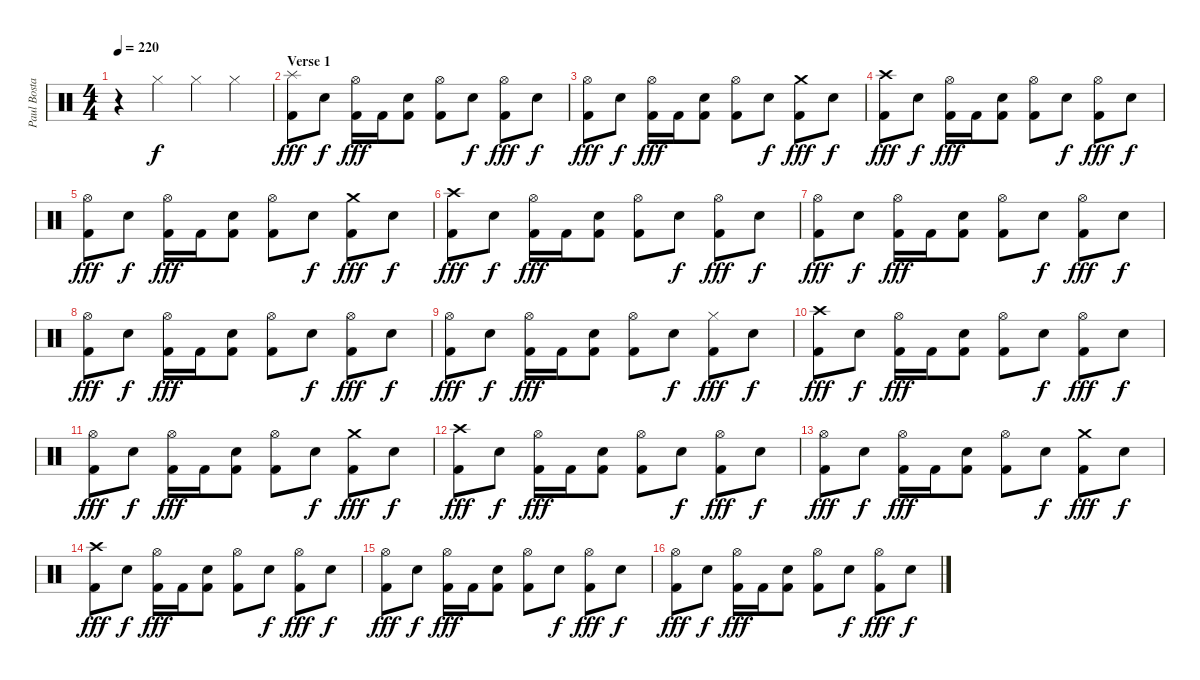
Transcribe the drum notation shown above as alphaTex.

\track ("Paul Bostaph" "Paul Bosta") {instrument percussion}
\staff {score}
\articulation defaults
\ts (4 4)
\tempo 220
\clef neutral
\ks c
r.4{dy fff} "Hi-Hat (closed)".4{dy f} "Hi-Hat (closed)".4 "Hi-Hat (closed)".4 |
\section ("" "Verse 1")
("Splash (hit)" "Kick (hit) 2").8{dy fff} "Snare (hit) 2".8{dy f} ("Hi-Hat (open)" "Kick (hit) 2").16{dy fff} "Kick (hit) 2".16 ("Snare (hit) 2" "Kick (hit) 2").8 ("Hi-Hat (open)" "Kick (hit) 2").8 "Snare (hit) 2".8{dy f} ("Hi-Hat (open)" "Kick (hit) 2").8{dy fff} "Snare (hit) 2".8{dy f} |
("Hi-Hat (open)" "Kick (hit) 2").8{dy fff} "Snare (hit) 2".8{dy f} ("Hi-Hat (open)" "Kick (hit) 2").16{dy fff} "Kick (hit) 2".16 ("Snare (hit) 2" "Kick (hit) 2").8 ("Hi-Hat (open)" "Kick (hit) 2").8 "Snare (hit) 2".8{dy f} ("Crash medium (hit)" "Kick (hit) 2").8{dy fff} "Snare (hit) 2".8{dy f} |
("Crash high (hit)" "Kick (hit) 2").8{dy fff} "Snare (hit) 2".8{dy f} ("Hi-Hat (open)" "Kick (hit) 2").16{dy fff} "Kick (hit) 2".16 ("Snare (hit) 2" "Kick (hit) 2").8 ("Hi-Hat (open)" "Kick (hit) 2").8 "Snare (hit) 2".8{dy f} ("Hi-Hat (open)" "Kick (hit) 2").8{dy fff} "Snare (hit) 2".8{dy f} |
("Hi-Hat (open)" "Kick (hit) 2").8{dy fff} "Snare (hit) 2".8{dy f} ("Hi-Hat (open)" "Kick (hit) 2").16{dy fff} "Kick (hit) 2".16 ("Snare (hit) 2" "Kick (hit) 2").8 ("Hi-Hat (open)" "Kick (hit) 2").8 "Snare (hit) 2".8{dy f} ("Crash medium (hit)" "Kick (hit) 2").8{dy fff} "Snare (hit) 2".8{dy f} |
("Crash high (hit)" "Kick (hit) 2").8{dy fff} "Snare (hit) 2".8{dy f} ("Hi-Hat (open)" "Kick (hit) 2").16{dy fff} "Kick (hit) 2".16 ("Snare (hit) 2" "Kick (hit) 2").8 ("Hi-Hat (open)" "Kick (hit) 2").8 "Snare (hit) 2".8{dy f} ("Hi-Hat (open)" "Kick (hit) 2").8{dy fff} "Snare (hit) 2".8{dy f} |
("Hi-Hat (open)" "Kick (hit) 2").8{dy fff} "Snare (hit) 2".8{dy f} ("Hi-Hat (open)" "Kick (hit) 2").16{dy fff} "Kick (hit) 2".16 ("Snare (hit) 2" "Kick (hit) 2").8 ("Hi-Hat (open)" "Kick (hit) 2").8 "Snare (hit) 2".8{dy f} ("Hi-Hat (open)" "Kick (hit) 2").8{dy fff} "Snare (hit) 2".8{dy f} |
("Hi-Hat (open)" "Kick (hit) 2").8{dy fff} "Snare (hit) 2".8{dy f} ("Hi-Hat (open)" "Kick (hit) 2").16{dy fff} "Kick (hit) 2".16 ("Snare (hit) 2" "Kick (hit) 2").8 ("Hi-Hat (open)" "Kick (hit) 2").8 "Snare (hit) 2".8{dy f} ("Hi-Hat (open)" "Kick (hit) 2").8{dy fff} "Snare (hit) 2".8{dy f} |
("Hi-Hat (open)" "Kick (hit) 2").8{dy fff} "Snare (hit) 2".8{dy f} ("Hi-Hat (open)" "Kick (hit) 2").16{dy fff} "Kick (hit) 2".16 ("Snare (hit) 2" "Kick (hit) 2").8 ("Hi-Hat (open)" "Kick (hit) 2").8 "Snare (hit) 2".8{dy f} ("Hi-Hat (closed)" "Kick (hit) 2").8{dy fff} "Snare (hit) 2".8{dy f} |
("Crash high (hit)" "Kick (hit) 2").8{dy fff} "Snare (hit) 2".8{dy f} ("Hi-Hat (open)" "Kick (hit) 2").16{dy fff} "Kick (hit) 2".16 ("Snare (hit) 2" "Kick (hit) 2").8 ("Hi-Hat (open)" "Kick (hit) 2").8 "Snare (hit) 2".8{dy f} ("Hi-Hat (open)" "Kick (hit) 2").8{dy fff} "Snare (hit) 2".8{dy f} |
("Hi-Hat (open)" "Kick (hit) 2").8{dy fff} "Snare (hit) 2".8{dy f} ("Hi-Hat (open)" "Kick (hit) 2").16{dy fff} "Kick (hit) 2".16 ("Snare (hit) 2" "Kick (hit) 2").8 ("Hi-Hat (open)" "Kick (hit) 2").8 "Snare (hit) 2".8{dy f} ("Crash medium (hit)" "Kick (hit) 2").8{dy fff} "Snare (hit) 2".8{dy f} |
("Crash high (hit)" "Kick (hit) 2").8{dy fff} "Snare (hit) 2".8{dy f} ("Hi-Hat (open)" "Kick (hit) 2").16{dy fff} "Kick (hit) 2".16 ("Snare (hit) 2" "Kick (hit) 2").8 ("Hi-Hat (open)" "Kick (hit) 2").8 "Snare (hit) 2".8{dy f} ("Hi-Hat (open)" "Kick (hit) 2").8{dy fff} "Snare (hit) 2".8{dy f} |
("Hi-Hat (open)" "Kick (hit) 2").8{dy fff} "Snare (hit) 2".8{dy f} ("Hi-Hat (open)" "Kick (hit) 2").16{dy fff} "Kick (hit) 2".16 ("Snare (hit) 2" "Kick (hit) 2").8 ("Hi-Hat (open)" "Kick (hit) 2").8 "Snare (hit) 2".8{dy f} ("Crash medium (hit)" "Kick (hit) 2").8{dy fff} "Snare (hit) 2".8{dy f} |
("Crash high (hit)" "Kick (hit) 2").8{dy fff} "Snare (hit) 2".8{dy f} ("Hi-Hat (open)" "Kick (hit) 2").16{dy fff} "Kick (hit) 2".16 ("Snare (hit) 2" "Kick (hit) 2").8 ("Hi-Hat (open)" "Kick (hit) 2").8 "Snare (hit) 2".8{dy f} ("Hi-Hat (open)" "Kick (hit) 2").8{dy fff} "Snare (hit) 2".8{dy f} |
("Hi-Hat (open)" "Kick (hit) 2").8{dy fff} "Snare (hit) 2".8{dy f} ("Hi-Hat (open)" "Kick (hit) 2").16{dy fff} "Kick (hit) 2".16 ("Snare (hit) 2" "Kick (hit) 2").8 ("Hi-Hat (open)" "Kick (hit) 2").8 "Snare (hit) 2".8{dy f} ("Hi-Hat (open)" "Kick (hit) 2").8{dy fff} "Snare (hit) 2".8{dy f} |
("Hi-Hat (open)" "Kick (hit) 2").8{dy fff} "Snare (hit) 2".8{dy f} ("Hi-Hat (open)" "Kick (hit) 2").16{dy fff} "Kick (hit) 2".16 ("Snare (hit) 2" "Kick (hit) 2").8 ("Hi-Hat (open)" "Kick (hit) 2").8 "Snare (hit) 2".8{dy f} ("Hi-Hat (open)" "Kick (hit) 2").8{dy fff} "Snare (hit) 2".8{dy f}
